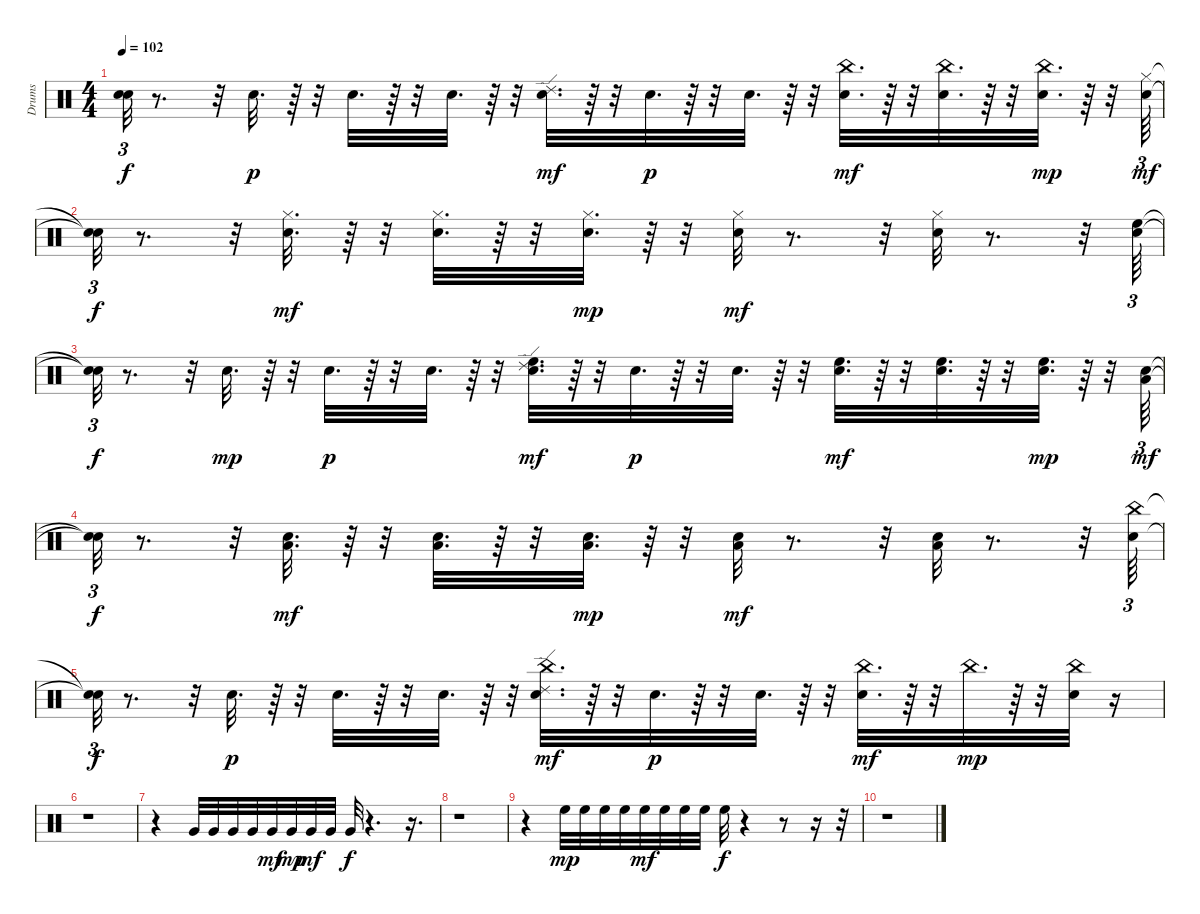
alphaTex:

\track ("Drums   " "Drums   ") {instrument percussion}
\staff {score}
\articulation defaults
\ts (4 4)
\tempo 102
\clef neutral
\ks c
("Snare (hit)"{t} "Snare (hit)"{t}).32{tu (3 2) dy f} r.8{d} r.32 "Electric Snare (hit)".32{d dy p} r.64 r.32 "Electric Snare (hit)".32{d} r.64 r.32 "Electric Snare (hit)".32{d} r.64 r.32 ("Electric Snare (hit)" "Ride (edge) 2").32{d dy mf} r.64 r.32 "Electric Snare (hit)".32{d dy p} r.64 r.32 "Electric Snare (hit)".32{d} r.64 r.32 ("Electric Snare (hit)" "China (hit)").32{d dy mf} r.64 r.32 ("Electric Snare (hit)" "China (hit)").32{d} r.64 r.32 ("Electric Snare (hit)" "China (hit)").32{d dy mp} r.64 r.32 ("Electric Snare (hit)" "Hi-Hat (closed)").64{tu (3 2) dy mf} |
("Snare (hit)"{t} "Snare (hit)"{t}).32{tu (3 2) dy f} r.8{d} r.32 ("Electric Snare (hit)" "Hi-Hat (closed)").32{d dy mf} r.64 r.32 ("Electric Snare (hit)" "Hi-Hat (closed)").32{d} r.64 r.32 ("Electric Snare (hit)" "Hi-Hat (closed)").32{d dy mp} r.64 r.32 ("Electric Snare (hit)" "Hi-Hat (closed)").32{dy mf} r.8{d} r.32 ("Electric Snare (hit)" "Hi-Hat (closed)").32 r.8{d} r.32 ("Electric Snare (hit)" "High Floor Tom (hit)").64{tu (3 2)} |
("Snare (hit)"{t} "Snare (hit)"{t}).32{tu (3 2) dy f} r.8{d} r.32 "Electric Snare (hit)".32{d dy mp} r.64 r.32 "Electric Snare (hit)".32{d dy p} r.64 r.32 "Electric Snare (hit)".32{d} r.64 r.32 ("Electric Snare (hit)" "High Floor Tom (hit)" "Ride (edge) 2").32{d dy mf} r.64 r.32 "Electric Snare (hit)".32{d dy p} r.64 r.32 "Electric Snare (hit)".32{d} r.64 r.32 ("Electric Snare (hit)" "High Floor Tom (hit)").32{d dy mf} r.64 r.32 ("Electric Snare (hit)" "High Floor Tom (hit)").32{d} r.64 r.32 ("Electric Snare (hit)" "High Floor Tom (hit)").32{d dy mp} r.64 r.32 ("Electric Snare (hit)" "Low Tom (hit)").64{tu (3 2) dy mf} |
("Snare (hit)"{t} "Snare (hit)"{t}).32{tu (3 2) dy f} r.8{d} r.32 ("Electric Snare (hit)" "Low Tom (hit)").32{d dy mf} r.64 r.32 ("Electric Snare (hit)" "Low Tom (hit)").32{d} r.64 r.32 ("Electric Snare (hit)" "Low Tom (hit)").32{d dy mp} r.64 r.32 ("Electric Snare (hit)" "Low Tom (hit)").32{dy mf} r.8{d} r.32 ("Electric Snare (hit)" "Low Tom (hit)").32 r.8{d} r.32 ("Electric Snare (hit)" "China (hit)").64{tu (3 2)} |
("Snare (hit)"{t} "Snare (hit)"{t}).32{tu (3 2) dy f} r.8{d} r.32 "Electric Snare (hit)".32{d dy p} r.64 r.32 "Electric Snare (hit)".32{d} r.64 r.32 "Electric Snare (hit)".32{d} r.64 r.32 ("Electric Snare (hit)" "China (hit)" "Ride (edge) 2").32{d dy mf} r.64 r.32 "Electric Snare (hit)".32{d dy p} r.64 r.32 "Electric Snare (hit)".32{d} r.64 r.32 ("Electric Snare (hit)" "China (hit)").32{d dy mf} r.64 r.32 "China (hit)".32{d dy mp} r.64 r.32 ("Electric Snare (hit)" "China (hit)").32 r.16 |
r.1 |
r.4 "Very Low Tom (hit)".32 "Very Low Tom (hit)".32 "Very Low Tom (hit)".32 "Very Low Tom (hit)".32 "Very Low Tom (hit)".32{dy mf} "Very Low Tom (hit)".32{dy mp} "Very Low Tom (hit)".32{dy mf} "Very Low Tom (hit)".32 "Very Low Tom (hit)".32{dy f} r.4{d} r.16{d} |
r.1 |
r.4 "High Floor Tom (hit)".32{dy mp} "High Floor Tom (hit)".32 "High Floor Tom (hit)".32 "High Floor Tom (hit)".32 "High Floor Tom (hit)".32{dy mf} "High Floor Tom (hit)".32 "High Floor Tom (hit)".32 "High Floor Tom (hit)".32 "High Floor Tom (hit)".32{dy f} r.4 r.8 r.16 r.32 |
r.1
